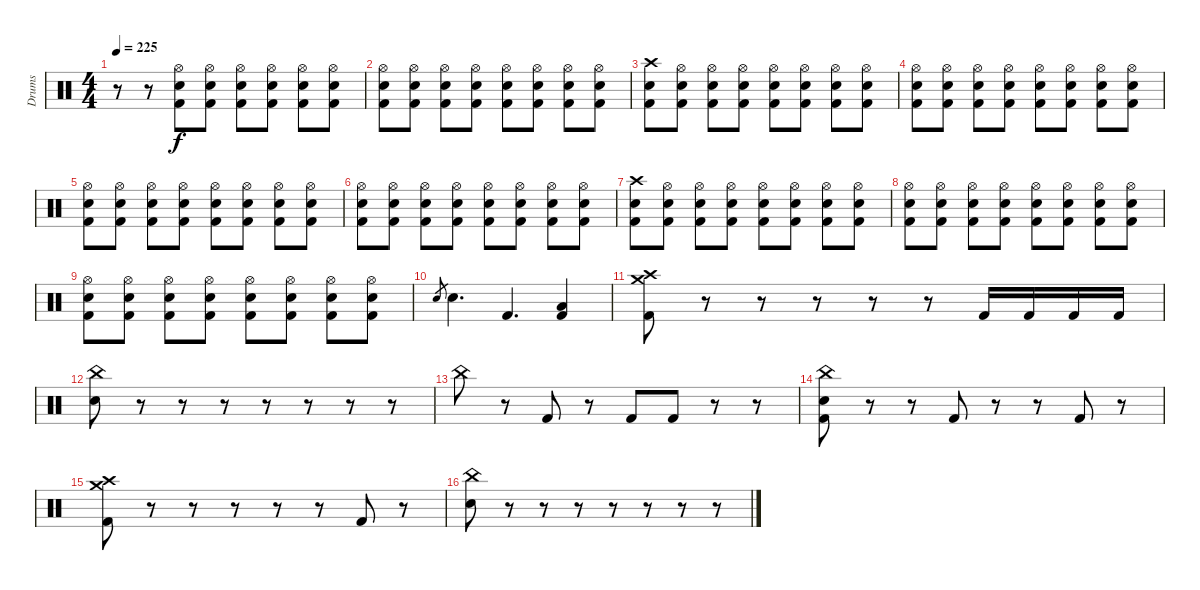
\track ("Drums" "Drums") {instrument percussion}
\staff {score}
\articulation defaults
\ts (4 4)
\tempo 225
\clef neutral
\ks c
r.8{dy f} r.8 ("Hi-Hat (open)" "Electric Snare (hit)" "Kick (hit) 2").8 ("Hi-Hat (open)" "Electric Snare (hit)" "Kick (hit) 2").8 ("Hi-Hat (open)" "Electric Snare (hit)" "Kick (hit) 2").8 ("Hi-Hat (open)" "Electric Snare (hit)" "Kick (hit) 2").8 ("Hi-Hat (open)" "Electric Snare (hit)" "Kick (hit) 2").8 ("Hi-Hat (open)" "Electric Snare (hit)" "Kick (hit) 2").8 |
("Hi-Hat (open)" "Electric Snare (hit)" "Kick (hit) 2").8 ("Hi-Hat (open)" "Electric Snare (hit)" "Kick (hit) 2").8 ("Hi-Hat (open)" "Electric Snare (hit)" "Kick (hit) 2").8 ("Hi-Hat (open)" "Electric Snare (hit)" "Kick (hit) 2").8 ("Hi-Hat (open)" "Electric Snare (hit)" "Kick (hit) 2").8 ("Hi-Hat (open)" "Electric Snare (hit)" "Kick (hit) 2").8 ("Hi-Hat (open)" "Electric Snare (hit)" "Kick (hit) 2").8 ("Hi-Hat (open)" "Electric Snare (hit)" "Kick (hit) 2").8 |
("Crash high (hit)" "Electric Snare (hit)" "Kick (hit) 2").8 ("Hi-Hat (open)" "Electric Snare (hit)" "Kick (hit) 2").8 ("Hi-Hat (open)" "Electric Snare (hit)" "Kick (hit) 2").8 ("Hi-Hat (open)" "Electric Snare (hit)" "Kick (hit) 2").8 ("Hi-Hat (open)" "Electric Snare (hit)" "Kick (hit) 2").8 ("Hi-Hat (open)" "Electric Snare (hit)" "Kick (hit) 2").8 ("Hi-Hat (open)" "Electric Snare (hit)" "Kick (hit) 2").8 ("Hi-Hat (open)" "Electric Snare (hit)" "Kick (hit) 2").8 |
("Hi-Hat (open)" "Electric Snare (hit)" "Kick (hit) 2").8 ("Hi-Hat (open)" "Electric Snare (hit)" "Kick (hit) 2").8 ("Hi-Hat (open)" "Electric Snare (hit)" "Kick (hit) 2").8 ("Hi-Hat (open)" "Electric Snare (hit)" "Kick (hit) 2").8 ("Hi-Hat (open)" "Electric Snare (hit)" "Kick (hit) 2").8 ("Hi-Hat (open)" "Electric Snare (hit)" "Kick (hit) 2").8 ("Hi-Hat (open)" "Electric Snare (hit)" "Kick (hit) 2").8 ("Hi-Hat (open)" "Electric Snare (hit)" "Kick (hit) 2").8 |
("Hi-Hat (open)" "Electric Snare (hit)" "Kick (hit) 2").8 ("Hi-Hat (open)" "Electric Snare (hit)" "Kick (hit) 2").8 ("Hi-Hat (open)" "Electric Snare (hit)" "Kick (hit) 2").8 ("Hi-Hat (open)" "Electric Snare (hit)" "Kick (hit) 2").8 ("Hi-Hat (open)" "Electric Snare (hit)" "Kick (hit) 2").8 ("Hi-Hat (open)" "Electric Snare (hit)" "Kick (hit) 2").8 ("Hi-Hat (open)" "Electric Snare (hit)" "Kick (hit) 2").8 ("Hi-Hat (open)" "Electric Snare (hit)" "Kick (hit) 2").8 |
("Hi-Hat (open)" "Electric Snare (hit)" "Kick (hit) 2").8 ("Hi-Hat (open)" "Electric Snare (hit)" "Kick (hit) 2").8 ("Hi-Hat (open)" "Electric Snare (hit)" "Kick (hit) 2").8 ("Hi-Hat (open)" "Electric Snare (hit)" "Kick (hit) 2").8 ("Hi-Hat (open)" "Electric Snare (hit)" "Kick (hit) 2").8 ("Hi-Hat (open)" "Electric Snare (hit)" "Kick (hit) 2").8 ("Hi-Hat (open)" "Electric Snare (hit)" "Kick (hit) 2").8 ("Hi-Hat (open)" "Electric Snare (hit)" "Kick (hit) 2").8 |
("Crash high (hit)" "Electric Snare (hit)" "Kick (hit) 2").8 ("Hi-Hat (open)" "Electric Snare (hit)" "Kick (hit) 2").8 ("Hi-Hat (open)" "Electric Snare (hit)" "Kick (hit) 2").8 ("Hi-Hat (open)" "Electric Snare (hit)" "Kick (hit) 2").8 ("Hi-Hat (open)" "Electric Snare (hit)" "Kick (hit) 2").8 ("Hi-Hat (open)" "Electric Snare (hit)" "Kick (hit) 2").8 ("Hi-Hat (open)" "Electric Snare (hit)" "Kick (hit) 2").8 ("Hi-Hat (open)" "Electric Snare (hit)" "Kick (hit) 2").8 |
("Hi-Hat (open)" "Electric Snare (hit)" "Kick (hit) 2").8 ("Hi-Hat (open)" "Electric Snare (hit)" "Kick (hit) 2").8 ("Hi-Hat (open)" "Electric Snare (hit)" "Kick (hit) 2").8 ("Hi-Hat (open)" "Electric Snare (hit)" "Kick (hit) 2").8 ("Hi-Hat (open)" "Electric Snare (hit)" "Kick (hit) 2").8 ("Hi-Hat (open)" "Electric Snare (hit)" "Kick (hit) 2").8 ("Hi-Hat (open)" "Electric Snare (hit)" "Kick (hit) 2").8 ("Hi-Hat (open)" "Electric Snare (hit)" "Kick (hit) 2").8 |
("Hi-Hat (open)" "Electric Snare (hit)" "Kick (hit) 2").8 ("Hi-Hat (open)" "Electric Snare (hit)" "Kick (hit) 2").8 ("Hi-Hat (open)" "Electric Snare (hit)" "Kick (hit) 2").8 ("Hi-Hat (open)" "Electric Snare (hit)" "Kick (hit) 2").8 ("Hi-Hat (open)" "Electric Snare (hit)" "Kick (hit) 2").8 ("Hi-Hat (open)" "Electric Snare (hit)" "Kick (hit) 2").8 ("Hi-Hat (open)" "Electric Snare (hit)" "Kick (hit) 2").8 ("Hi-Hat (open)" "Electric Snare (hit)" "Kick (hit) 2").8 |
"Electric Snare (hit)".8{gr} "Electric Snare (hit)".4{d} "Kick (hit) 2".4{d} ("Low Floor Tom (hit)" "Kick (hit) 2").4 |
("Crash medium (hit)" "Crash high (hit)" "Kick (hit) 2").8 r.8 r.8 r.8 r.8 r.8 "Kick (hit) 2".16 "Kick (hit) 2".16 "Kick (hit) 2".16 "Kick (hit) 2".16 |
("China (hit)" "Electric Snare (hit)").8 r.8 r.8 r.8 r.8 r.8 r.8 r.8 |
"China (hit)".8 r.8 "Kick (hit) 2".8 r.8 "Kick (hit) 2".8 "Kick (hit) 2".8 r.8 r.8 |
("China (hit)" "Electric Snare (hit)" "Kick (hit) 2").8 r.8 r.8 "Kick (hit) 2".8 r.8 r.8 "Kick (hit) 2".8 r.8 |
("Crash medium (hit)" "Crash high (hit)" "Kick (hit) 2").8 r.8 r.8 r.8 r.8 r.8 "Kick (hit) 2".8 r.8 |
("China (hit)" "Electric Snare (hit)").8 r.8 r.8 r.8 r.8 r.8 r.8 r.8
